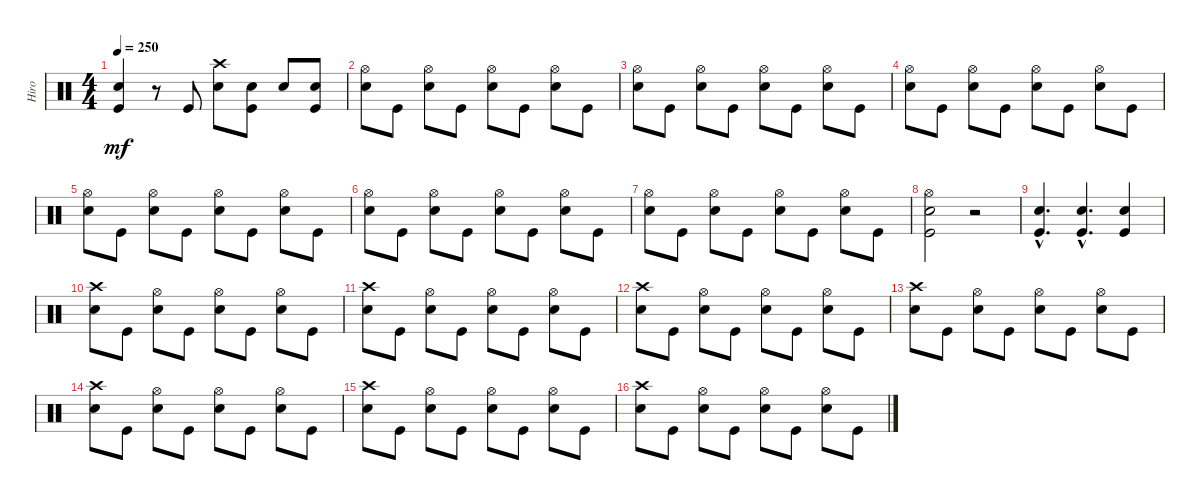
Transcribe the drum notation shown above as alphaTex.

\track ("Hiro" "Hiro") {instrument percussion}
\staff {score}
\articulation defaults
\ts (4 4)
\tempo 250
\clef neutral
\ks c
("Kick (hit)" "Electric Snare (hit)").4{dy mf} r.8 "Kick (hit)".8 ("Crash high (hit)" "Electric Snare (hit)").8 ("Electric Snare (hit)" "Kick (hit)").8 "Electric Snare (hit)".8 ("Electric Snare (hit)" "Kick (hit)").8 |
("Hi-Hat (open)" "Electric Snare (hit)").8 "Kick (hit)".8 ("Hi-Hat (open)" "Electric Snare (hit)").8 "Kick (hit)".8 ("Hi-Hat (open)" "Electric Snare (hit)").8 "Kick (hit)".8 ("Hi-Hat (open)" "Electric Snare (hit)").8 "Kick (hit)".8 |
("Electric Snare (hit)" "Hi-Hat (open)").8 "Kick (hit)".8 ("Electric Snare (hit)" "Hi-Hat (open)").8 "Kick (hit)".8 ("Electric Snare (hit)" "Hi-Hat (open)").8 "Kick (hit)".8 ("Electric Snare (hit)" "Hi-Hat (open)").8 "Kick (hit)".8 |
("Electric Snare (hit)" "Hi-Hat (open)").8 "Kick (hit)".8 ("Electric Snare (hit)" "Hi-Hat (open)").8 "Kick (hit)".8 ("Electric Snare (hit)" "Hi-Hat (open)").8 "Kick (hit)".8 ("Electric Snare (hit)" "Hi-Hat (open)").8 "Kick (hit)".8 |
("Electric Snare (hit)" "Hi-Hat (open)").8 "Kick (hit)".8 ("Electric Snare (hit)" "Hi-Hat (open)").8 "Kick (hit)".8 ("Electric Snare (hit)" "Hi-Hat (open)").8 "Kick (hit)".8 ("Electric Snare (hit)" "Hi-Hat (open)").8 "Kick (hit)".8 |
("Hi-Hat (open)" "Electric Snare (hit)").8 "Kick (hit)".8 ("Hi-Hat (open)" "Electric Snare (hit)").8 "Kick (hit)".8 ("Hi-Hat (open)" "Electric Snare (hit)").8 "Kick (hit)".8 ("Hi-Hat (open)" "Electric Snare (hit)").8 "Kick (hit)".8 |
("Hi-Hat (open)" "Electric Snare (hit)").8 "Kick (hit)".8 ("Hi-Hat (open)" "Electric Snare (hit)").8 "Kick (hit)".8 ("Hi-Hat (open)" "Electric Snare (hit)").8 "Kick (hit)".8 ("Hi-Hat (open)" "Electric Snare (hit)").8 "Kick (hit)".8 |
("Hi-Hat (open)" "Electric Snare (hit)" "Kick (hit)").2 r.2 |
("Electric Snare (hit)"{hac} "Kick (hit)").4{d} ("Electric Snare (hit)"{hac} "Kick (hit)").4{d} ("Electric Snare (hit)" "Kick (hit)").4 |
("Crash high (hit)" "Electric Snare (hit)").8 "Kick (hit)".8 ("Hi-Hat (open)" "Electric Snare (hit)").8 "Kick (hit)".8 ("Hi-Hat (open)" "Electric Snare (hit)").8 "Kick (hit)".8 ("Hi-Hat (open)" "Electric Snare (hit)").8 "Kick (hit)".8 |
("Electric Snare (hit)" "Crash high (hit)").8 "Kick (hit)".8 ("Electric Snare (hit)" "Hi-Hat (open)").8 "Kick (hit)".8 ("Electric Snare (hit)" "Hi-Hat (open)").8 "Kick (hit)".8 ("Electric Snare (hit)" "Hi-Hat (open)").8 "Kick (hit)".8 |
("Electric Snare (hit)" "Crash high (hit)").8 "Kick (hit)".8 ("Electric Snare (hit)" "Hi-Hat (open)").8 "Kick (hit)".8 ("Electric Snare (hit)" "Hi-Hat (open)").8 "Kick (hit)".8 ("Electric Snare (hit)" "Hi-Hat (open)").8 "Kick (hit)".8 |
("Electric Snare (hit)" "Crash high (hit)").8 "Kick (hit)".8 ("Electric Snare (hit)" "Hi-Hat (open)").8 "Kick (hit)".8 ("Electric Snare (hit)" "Hi-Hat (open)").8 "Kick (hit)".8 ("Electric Snare (hit)" "Hi-Hat (open)").8 "Kick (hit)".8 |
("Electric Snare (hit)" "Crash high (hit)").8 "Kick (hit)".8 ("Electric Snare (hit)" "Hi-Hat (open)").8 "Kick (hit)".8 ("Electric Snare (hit)" "Hi-Hat (open)").8 "Kick (hit)".8 ("Electric Snare (hit)" "Hi-Hat (open)").8 "Kick (hit)".8 |
("Crash high (hit)" "Electric Snare (hit)").8 "Kick (hit)".8 ("Hi-Hat (open)" "Electric Snare (hit)").8 "Kick (hit)".8 ("Hi-Hat (open)" "Electric Snare (hit)").8 "Kick (hit)".8 ("Hi-Hat (open)" "Electric Snare (hit)").8 "Kick (hit)".8 |
("Crash high (hit)" "Electric Snare (hit)").8 "Kick (hit)".8 ("Hi-Hat (open)" "Electric Snare (hit)").8 "Kick (hit)".8 ("Hi-Hat (open)" "Electric Snare (hit)").8 "Kick (hit)".8 ("Hi-Hat (open)" "Electric Snare (hit)").8 "Kick (hit)".8
